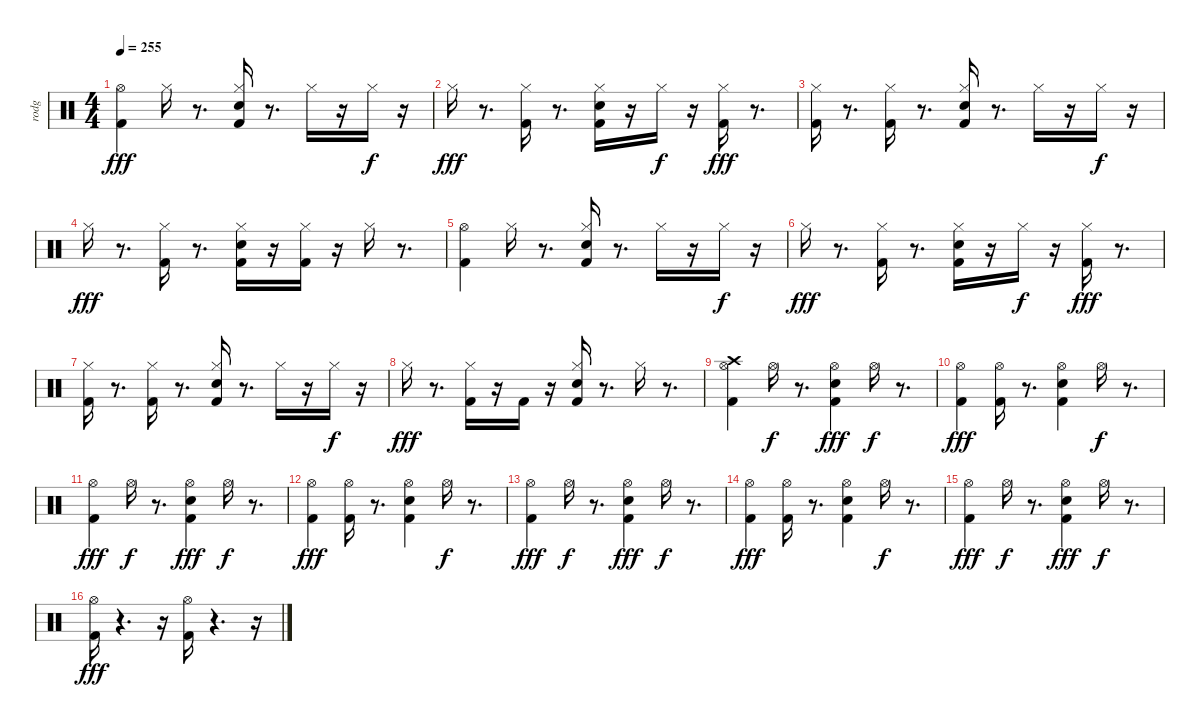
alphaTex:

\track ("rodg" "rodg") {instrument percussion}
\staff {score}
\articulation defaults
\ts (4 4)
\tempo 255
\clef neutral
\ks c
("Hi-Hat (open)" "Kick (hit) 2").4{dy fff} "Hi-Hat (closed)".16 r.8{d} ("Kick (hit) 2" "Electric Snare (hit)" "Hi-Hat (closed)").16 r.8{d} "Hi-Hat (closed)".16 r.16 "Hi-Hat (closed)".16{dy f} r.16 |
"Hi-Hat (closed)".16{dy fff} r.8{d} ("Kick (hit) 2" "Hi-Hat (closed)").16 r.8{d} ("Kick (hit) 2" "Electric Snare (hit)" "Hi-Hat (closed)").16 r.16 "Hi-Hat (closed)".16{dy f} r.16 ("Kick (hit) 2" "Hi-Hat (closed)").16{dy fff} r.8{d} |
("Kick (hit) 2" "Hi-Hat (closed)").16 r.8{d} ("Hi-Hat (closed)" "Kick (hit) 2").16 r.8{d} ("Kick (hit) 2" "Electric Snare (hit)" "Hi-Hat (closed)").16 r.8{d} "Hi-Hat (closed)".16 r.16 "Hi-Hat (closed)".16{dy f} r.16 |
"Hi-Hat (closed)".16{dy fff} r.8{d} ("Kick (hit) 2" "Hi-Hat (closed)").16 r.8{d} ("Kick (hit) 2" "Electric Snare (hit)" "Hi-Hat (closed)").16 r.16 ("Hi-Hat (closed)" "Kick (hit) 2").16 r.16 "Hi-Hat (closed)".16 r.8{d} |
("Hi-Hat (open)" "Kick (hit) 2").4 "Hi-Hat (closed)".16 r.8{d} ("Kick (hit) 2" "Electric Snare (hit)" "Hi-Hat (closed)").16 r.8{d} "Hi-Hat (closed)".16 r.16 "Hi-Hat (closed)".16{dy f} r.16 |
"Hi-Hat (closed)".16{dy fff} r.8{d} ("Kick (hit) 2" "Hi-Hat (closed)").16 r.8{d} ("Kick (hit) 2" "Electric Snare (hit)" "Hi-Hat (closed)").16 r.16 "Hi-Hat (closed)".16{dy f} r.16 ("Kick (hit) 2" "Hi-Hat (closed)").16{dy fff} r.8{d} |
("Kick (hit) 2" "Hi-Hat (closed)").16 r.8{d} ("Hi-Hat (closed)" "Kick (hit) 2").16 r.8{d} ("Kick (hit) 2" "Electric Snare (hit)" "Hi-Hat (closed)").16 r.8{d} "Hi-Hat (closed)".16 r.16 "Hi-Hat (closed)".16{dy f} r.16 |
"Hi-Hat (closed)".16{dy fff} r.8{d} ("Kick (hit) 2" "Hi-Hat (closed)").16 r.16 "Kick (hit) 2".16 r.16 ("Kick (hit) 2" "Electric Snare (hit)" "Hi-Hat (closed)").16 r.8{d} "Hi-Hat (closed)".16 r.8{d} |
("Hi-Hat (open)" "Kick (hit) 2" "Crash high (hit)").4 "Hi-Hat (open)".16{dy f} r.8{d} ("Hi-Hat (open)" "Electric Snare (hit)" "Kick (hit) 2").4{dy fff} "Hi-Hat (open)".16{dy f} r.8{d} |
("Hi-Hat (open)" "Kick (hit) 2").4{dy fff} ("Hi-Hat (open)" "Kick (hit) 2").16 r.8{d} ("Hi-Hat (open)" "Electric Snare (hit)" "Kick (hit) 2").4 "Hi-Hat (open)".16{dy f} r.8{d} |
("Kick (hit) 2" "Hi-Hat (open)").4{dy fff} "Hi-Hat (open)".16{dy f} r.8{d} ("Hi-Hat (open)" "Electric Snare (hit)" "Kick (hit) 2").4{dy fff} "Hi-Hat (open)".16{dy f} r.8{d} |
("Hi-Hat (open)" "Kick (hit) 2").4{dy fff} ("Hi-Hat (open)" "Kick (hit) 2").16 r.8{d} ("Hi-Hat (open)" "Electric Snare (hit)" "Kick (hit) 2").4 "Hi-Hat (open)".16{dy f} r.8{d} |
("Kick (hit) 2" "Hi-Hat (open)").4{dy fff} "Hi-Hat (open)".16{dy f} r.8{d} ("Hi-Hat (open)" "Electric Snare (hit)" "Kick (hit) 2").4{dy fff} "Hi-Hat (open)".16{dy f} r.8{d} |
("Hi-Hat (open)" "Kick (hit) 2").4{dy fff} ("Hi-Hat (open)" "Kick (hit) 2").16 r.8{d} ("Hi-Hat (open)" "Electric Snare (hit)" "Kick (hit) 2").4 "Hi-Hat (open)".16{dy f} r.8{d} |
("Kick (hit) 2" "Hi-Hat (open)").4{dy fff} "Hi-Hat (open)".16{dy f} r.8{d} ("Hi-Hat (open)" "Electric Snare (hit)" "Kick (hit) 2").4{dy fff} "Hi-Hat (open)".16{dy f} r.8{d} |
("Kick (hit) 2" "Hi-Hat (open)").16{dy fff} r.4{d} r.16 ("Hi-Hat (open)" "Kick (hit) 2").16 r.4{d} r.16
